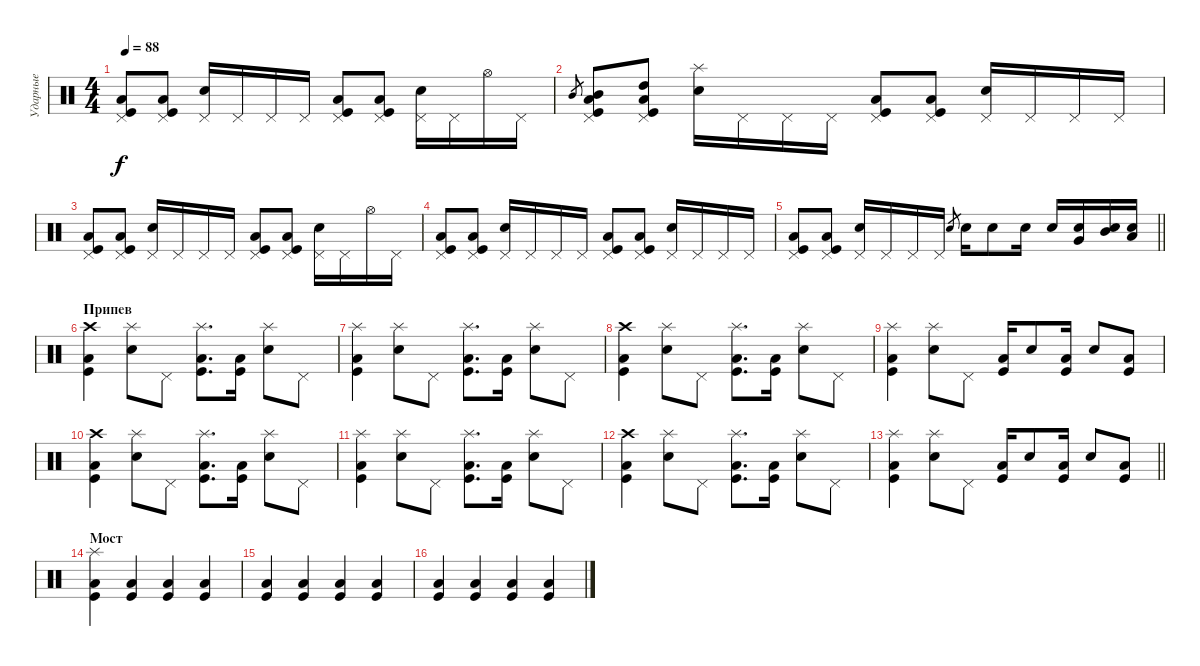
\track ("Ударные" "Ударные") {instrument percussion}
\staff {score}
\articulation defaults
\ts (4 4)
\tempo 88
\clef neutral
\ks c
("Pedal Hi-Hat (hit)" "Low Tom (hit)" "Kick (hit)").8{dy f} ("Pedal Hi-Hat (hit)" "Low Tom (hit)" "Kick (hit)").8 ("Pedal Hi-Hat (hit)" "Electric Snare (hit)").16 "Pedal Hi-Hat (hit)".16 "Pedal Hi-Hat (hit)".16 "Pedal Hi-Hat (hit)".16 ("Pedal Hi-Hat (hit)" "Low Tom (hit)" "Kick (hit)").8 ("Pedal Hi-Hat (hit)" "Low Tom (hit)" "Kick (hit)").8 ("Pedal Hi-Hat (hit)" "Electric Snare (hit)").16 "Pedal Hi-Hat (hit)".16 "Hi-Hat (open)".16 "Pedal Hi-Hat (hit)".16 |
"Mid Tom (hit)"{h}.8{gr} ("Pedal Hi-Hat (hit)" "Mid Tom (hit)" "Low Tom (hit)" "Kick (hit)").8 ("Pedal Hi-Hat (hit)" "High Tom (hit)" "Low Tom (hit)" "Kick (hit)").8 ("Splash (hit)" "Electric Snare (hit)").16 "Pedal Hi-Hat (hit)".16 "Pedal Hi-Hat (hit)".16 "Pedal Hi-Hat (hit)".16 ("Pedal Hi-Hat (hit)" "Low Tom (hit)" "Kick (hit)").8 ("Pedal Hi-Hat (hit)" "Low Tom (hit)" "Kick (hit)").8 ("Pedal Hi-Hat (hit)" "Electric Snare (hit)").16 "Pedal Hi-Hat (hit)".16 "Pedal Hi-Hat (hit)".16 "Pedal Hi-Hat (hit)".16 |
("Pedal Hi-Hat (hit)" "Low Tom (hit)" "Kick (hit)").8 ("Pedal Hi-Hat (hit)" "Low Tom (hit)" "Kick (hit)").8 ("Pedal Hi-Hat (hit)" "Electric Snare (hit)").16 "Pedal Hi-Hat (hit)".16 "Pedal Hi-Hat (hit)".16 "Pedal Hi-Hat (hit)".16 ("Pedal Hi-Hat (hit)" "Low Tom (hit)" "Kick (hit)").8 ("Pedal Hi-Hat (hit)" "Low Tom (hit)" "Kick (hit)").8 ("Pedal Hi-Hat (hit)" "Electric Snare (hit)").16 "Pedal Hi-Hat (hit)".16 "Hi-Hat (open)".16 "Pedal Hi-Hat (hit)".16 |
("Pedal Hi-Hat (hit)" "Low Tom (hit)" "Kick (hit)").8 ("Pedal Hi-Hat (hit)" "Low Tom (hit)" "Kick (hit)").8 ("Pedal Hi-Hat (hit)" "Electric Snare (hit)").16 "Pedal Hi-Hat (hit)".16 "Pedal Hi-Hat (hit)".16 "Pedal Hi-Hat (hit)".16 ("Pedal Hi-Hat (hit)" "Low Tom (hit)" "Kick (hit)").8 ("Pedal Hi-Hat (hit)" "Low Tom (hit)" "Kick (hit)").8 ("Pedal Hi-Hat (hit)" "Electric Snare (hit)").16 "Pedal Hi-Hat (hit)".16 "Pedal Hi-Hat (hit)".16 "Pedal Hi-Hat (hit)".16 |
\barLineRight lightlight
("Pedal Hi-Hat (hit)" "Low Tom (hit)" "Kick (hit)").8 ("Pedal Hi-Hat (hit)" "Low Tom (hit)" "Kick (hit)").8 ("Pedal Hi-Hat (hit)" "Electric Snare (hit)").16 "Pedal Hi-Hat (hit)".16 "Pedal Hi-Hat (hit)".16 "Pedal Hi-Hat (hit)".16 "Snare (hit) 2"{h}.8{gr} "Electric Snare (hit)".16 "Electric Snare (hit)".8 "Electric Snare (hit)".16 "Electric Snare (hit)".16 ("Very Low Tom (hit)" "Electric Snare (hit)").16 ("Mid Tom (hit)" "Electric Snare (hit)").16 ("Low Tom (hit)" "Electric Snare (hit)").16 |
\section ("" "Припев")
("Crash high (hit)" "Low Tom (hit)" "Kick (hit)").4 ("Splash (hit)" "Electric Snare (hit)").8 "Pedal Hi-Hat (hit)".8 ("Splash (hit)" "Low Tom (hit)" "Kick (hit)").8{d} ("Low Tom (hit)" "Kick (hit)").16 ("Splash (hit)" "Electric Snare (hit)").8 "Pedal Hi-Hat (hit)".8 |
("Splash (hit)" "Low Tom (hit)" "Kick (hit)").4 ("Splash (hit)" "Electric Snare (hit)").8 "Pedal Hi-Hat (hit)".8 ("Splash (hit)" "Low Tom (hit)" "Kick (hit)").8{d} ("Low Tom (hit)" "Kick (hit)").16 ("Splash (hit)" "Electric Snare (hit)").8 "Pedal Hi-Hat (hit)".8 |
("Crash high (hit)" "Low Tom (hit)" "Kick (hit)").4 ("Splash (hit)" "Electric Snare (hit)").8 "Pedal Hi-Hat (hit)".8 ("Splash (hit)" "Low Tom (hit)" "Kick (hit)").8{d} ("Low Tom (hit)" "Kick (hit)").16 ("Splash (hit)" "Electric Snare (hit)").8 "Pedal Hi-Hat (hit)".8 |
("Splash (hit)" "Low Tom (hit)" "Kick (hit)").4 ("Splash (hit)" "Electric Snare (hit)").8 "Pedal Hi-Hat (hit)".8 ("Low Tom (hit)" "Kick (hit)").16 "Electric Snare (hit)".8 ("Low Tom (hit)" "Kick (hit)").16 "Electric Snare (hit)".8 ("Low Tom (hit)" "Kick (hit)").8 |
("Crash high (hit)" "Low Tom (hit)" "Kick (hit)").4 ("Splash (hit)" "Electric Snare (hit)").8 "Pedal Hi-Hat (hit)".8 ("Splash (hit)" "Low Tom (hit)" "Kick (hit)").8{d} ("Low Tom (hit)" "Kick (hit)").16 ("Splash (hit)" "Electric Snare (hit)").8 "Pedal Hi-Hat (hit)".8 |
("Splash (hit)" "Low Tom (hit)" "Kick (hit)").4 ("Splash (hit)" "Electric Snare (hit)").8 "Pedal Hi-Hat (hit)".8 ("Splash (hit)" "Low Tom (hit)" "Kick (hit)").8{d} ("Low Tom (hit)" "Kick (hit)").16 ("Splash (hit)" "Electric Snare (hit)").8 "Pedal Hi-Hat (hit)".8 |
("Crash high (hit)" "Low Tom (hit)" "Kick (hit)").4 ("Splash (hit)" "Electric Snare (hit)").8 "Pedal Hi-Hat (hit)".8 ("Splash (hit)" "Low Tom (hit)" "Kick (hit)").8{d} ("Low Tom (hit)" "Kick (hit)").16 ("Splash (hit)" "Electric Snare (hit)").8 "Pedal Hi-Hat (hit)".8 |
\barLineRight lightlight
("Splash (hit)" "Low Tom (hit)" "Kick (hit)").4 ("Splash (hit)" "Electric Snare (hit)").8 "Pedal Hi-Hat (hit)".8 ("Low Tom (hit)" "Kick (hit)").16 "Electric Snare (hit)".8 ("Low Tom (hit)" "Kick (hit)").16 "Electric Snare (hit)".8 ("Low Tom (hit)" "Kick (hit)").8 |
\section ("" "Мост")
("Splash (hit)" "Low Tom (hit)" "Kick (hit)").4 ("Low Tom (hit)" "Kick (hit)").4 ("Low Tom (hit)" "Kick (hit)").4 ("Low Tom (hit)" "Kick (hit)").4 |
("Low Tom (hit)" "Kick (hit)").4 ("Low Tom (hit)" "Kick (hit)").4 ("Low Tom (hit)" "Kick (hit)").4 ("Low Tom (hit)" "Kick (hit)").4 |
("Low Tom (hit)" "Kick (hit)").4 ("Low Tom (hit)" "Kick (hit)").4 ("Low Tom (hit)" "Kick (hit)").4 ("Low Tom (hit)" "Kick (hit)").4
